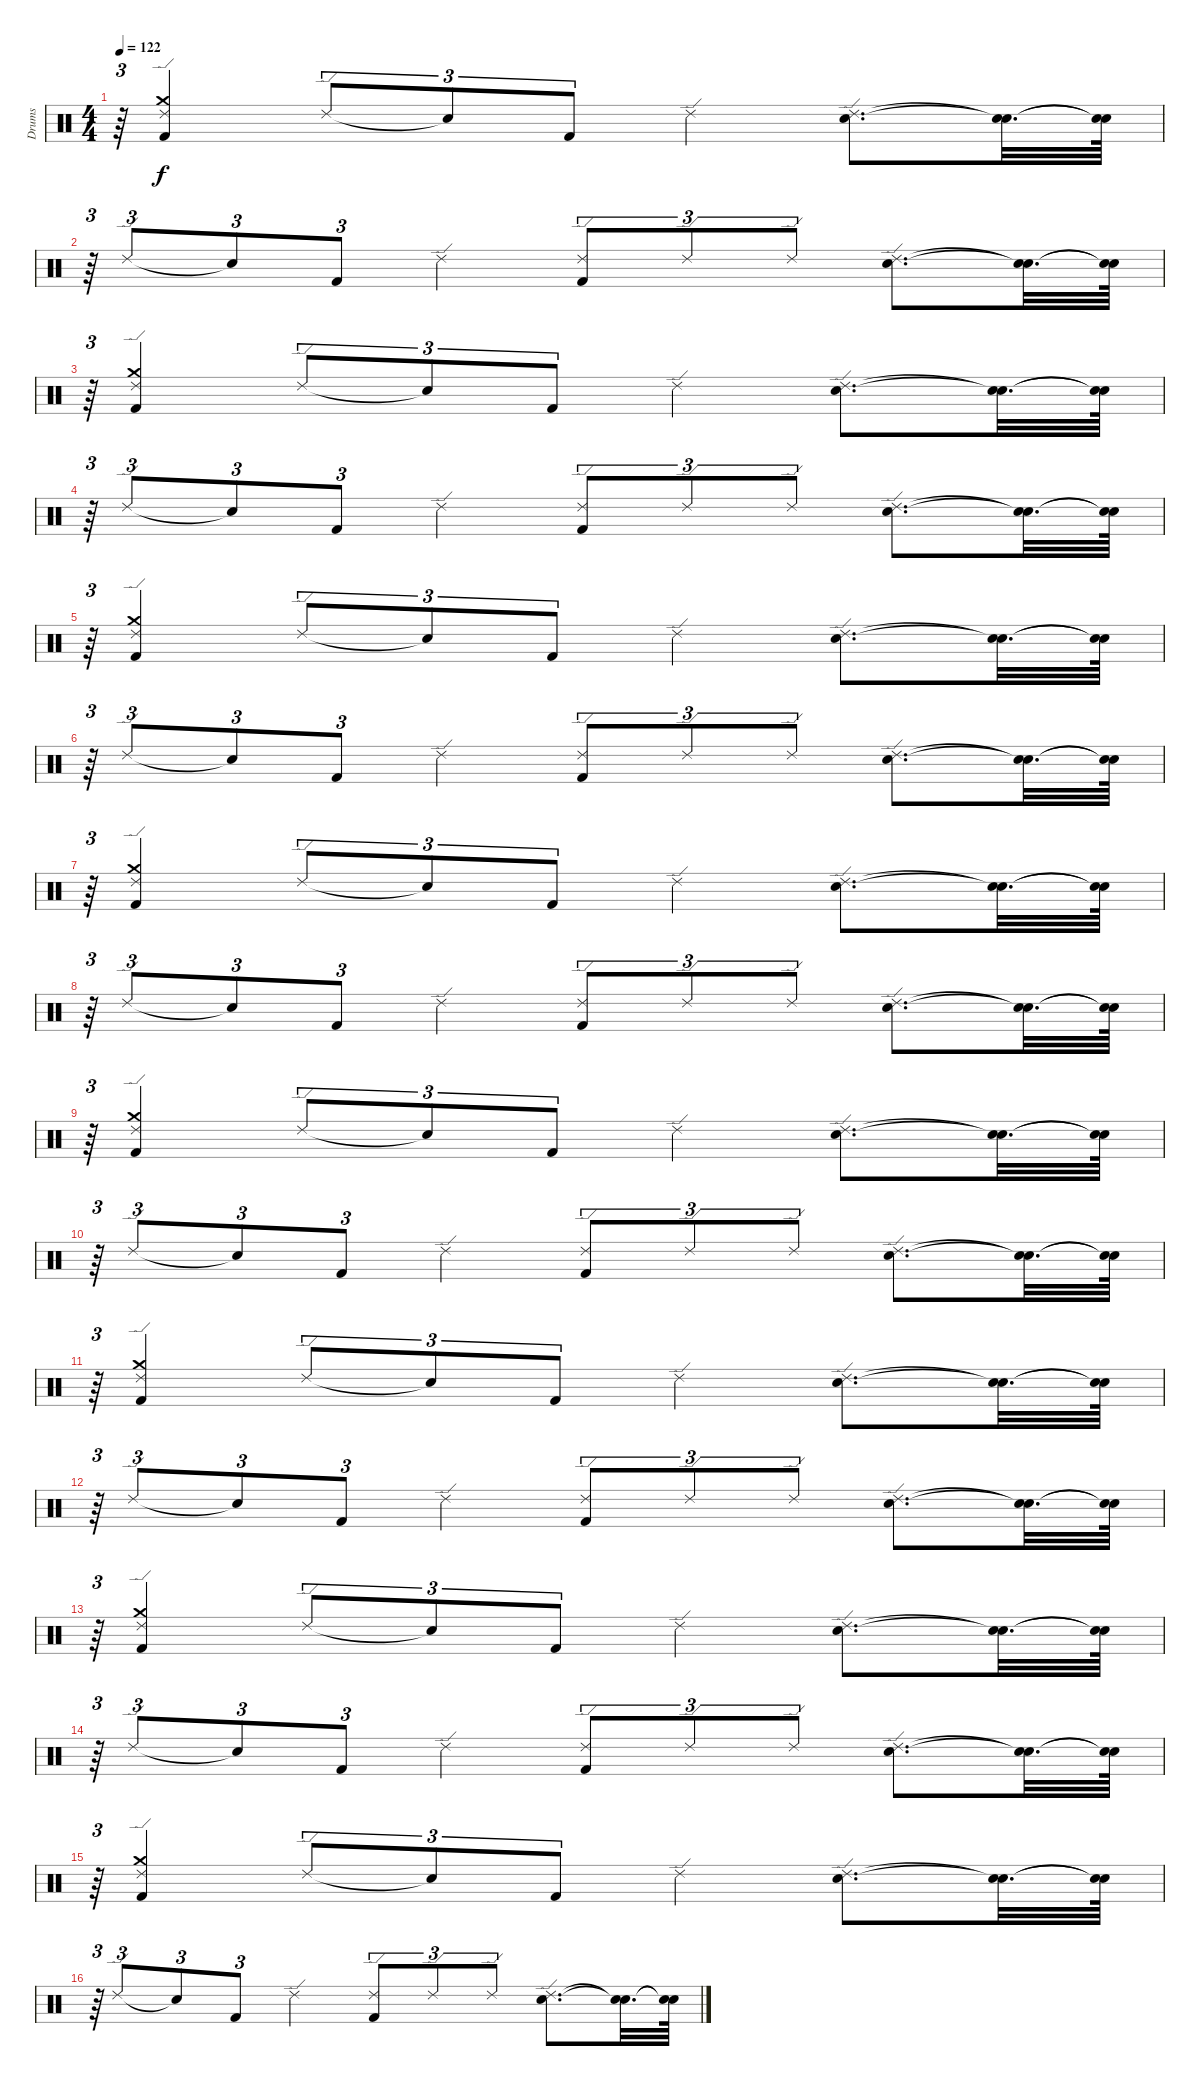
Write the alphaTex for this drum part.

\track ("Drums" "Drums") {instrument percussion}
\staff {score}
\articulation defaults
\ts (4 4)
\tempo 122
\clef neutral
\ks c
r.64{tu (3 2) dy f} ("Ride (edge) 2" "Crash medium (hit)" "Kick (hit) 2").4{volume 14} "Ride (edge) 2".8{tu (3 2) volume 13} "Snare (hit)"{t}.8{tu (3 2)} "Kick (hit) 2".8{tu (3 2) volume 13} "Ride (edge) 2".4{volume 13} ("Ride (edge) 2" "Snare (hit) 2").8{d volume 13} ("Snare (hit)"{t} "Snare (hit)"{t}).32{d} ("Snare (hit)"{t} "Snare (hit)"{t}).64 |
r.64{tu (3 2)} "Ride (edge) 2".8{tu (3 2) volume 13} "Snare (hit)"{t}.8{tu (3 2)} "Kick (hit) 2".8{tu (3 2) volume 13} "Ride (edge) 2".4{volume 12} ("Kick (hit) 2" "Ride (edge) 2").8{tu (3 2) volume 12} "Ride (edge) 2".8{tu (3 2)} "Ride (edge) 2".8{tu (3 2) volume 12} ("Snare (hit) 2" "Ride (edge) 2").8{d} ("Snare (hit)"{t} "Snare (hit)"{t}).32{d} ("Snare (hit)"{t} "Snare (hit)"{t}).64 |
r.64{tu (3 2)} ("Kick (hit) 2" "Crash medium (hit)" "Ride (edge) 2").4{volume 12} "Ride (edge) 2".8{tu (3 2) volume 12} "Snare (hit)"{t}.8{tu (3 2)} "Kick (hit) 2".8{tu (3 2) volume 12} "Ride (edge) 2".4 ("Snare (hit) 2" "Ride (edge) 2").8{d volume 11} ("Snare (hit)"{t} "Snare (hit)"{t}).32{d} ("Snare (hit)"{t} "Snare (hit)"{t}).64 |
r.64{tu (3 2)} "Ride (edge) 2".8{tu (3 2) volume 11} "Snare (hit)"{t}.8{tu (3 2)} "Kick (hit) 2".8{tu (3 2) volume 11} "Ride (edge) 2".4 ("Kick (hit) 2" "Ride (edge) 2").8{tu (3 2) volume 11} "Ride (edge) 2".8{tu (3 2) volume 10} "Ride (edge) 2".8{tu (3 2)} ("Snare (hit) 2" "Ride (edge) 2").8{d volume 10} ("Snare (hit)"{t} "Snare (hit)"{t}).32{d} ("Snare (hit)"{t} "Snare (hit)"{t}).64 |
r.64{tu (3 2)} ("Kick (hit) 2" "Crash medium (hit)" "Ride (edge) 2").4{volume 10} "Ride (edge) 2".8{tu (3 2) volume 10} "Snare (hit)"{t}.8{tu (3 2)} "Kick (hit) 2".8{tu (3 2) volume 10} "Ride (edge) 2".4{volume 10} ("Snare (hit) 2" "Ride (edge) 2").8{d volume 10} ("Snare (hit)"{t} "Snare (hit)"{t}).32{d} ("Snare (hit)"{t} "Snare (hit)"{t}).64 |
r.64{tu (3 2)} "Ride (edge) 2".8{tu (3 2) volume 9} "Snare (hit)"{t}.8{tu (3 2)} "Kick (hit) 2".8{tu (3 2) volume 9} "Ride (edge) 2".4{volume 9} ("Kick (hit) 2" "Ride (edge) 2").8{tu (3 2) volume 9} "Ride (edge) 2".8{tu (3 2)} "Ride (edge) 2".8{tu (3 2) volume 9} ("Snare (hit) 2" "Ride (edge) 2").8{d} ("Snare (hit)"{t} "Snare (hit)"{t}).32{d} ("Snare (hit)"{t} "Snare (hit)"{t}).64 |
r.64{tu (3 2)} ("Kick (hit) 2" "Crash medium (hit)" "Ride (edge) 2").4{volume 8} "Ride (edge) 2".8{tu (3 2) volume 8} "Snare (hit)"{t}.8{tu (3 2)} "Kick (hit) 2".8{tu (3 2) volume 8} "Ride (edge) 2".4 ("Snare (hit) 2" "Ride (edge) 2").8{d volume 8} ("Snare (hit)"{t} "Snare (hit)"{t}).32{d} ("Snare (hit)"{t} "Snare (hit)"{t}).64 |
r.64{tu (3 2)} "Ride (edge) 2".8{tu (3 2) volume 8} "Snare (hit)"{t}.8{tu (3 2)} "Kick (hit) 2".8{tu (3 2) volume 8} "Ride (edge) 2".4 ("Kick (hit) 2" "Ride (edge) 2").8{tu (3 2) volume 7} "Ride (edge) 2".8{tu (3 2) volume 7} "Ride (edge) 2".8{tu (3 2)} ("Snare (hit) 2" "Ride (edge) 2").8{d volume 7} ("Snare (hit)"{t} "Snare (hit)"{t}).32{d} ("Snare (hit)"{t} "Snare (hit)"{t}).64 |
r.64{tu (3 2)} ("Kick (hit) 2" "Crash medium (hit)" "Ride (edge) 2").4{volume 7} "Ride (edge) 2".8{tu (3 2) volume 7} "Snare (hit)"{t}.8{tu (3 2)} "Kick (hit) 2".8{tu (3 2) volume 6} "Ride (edge) 2".4{volume 6} ("Snare (hit) 2" "Ride (edge) 2").8{d volume 6} ("Snare (hit)"{t} "Snare (hit)"{t}).32{d} ("Snare (hit)"{t} "Snare (hit)"{t}).64 |
r.64{tu (3 2)} "Ride (edge) 2".8{tu (3 2) volume 6} "Snare (hit)"{t}.8{tu (3 2)} "Kick (hit) 2".8{tu (3 2) volume 6} "Ride (edge) 2".4{volume 6} ("Kick (hit) 2" "Ride (edge) 2").8{tu (3 2) volume 6} "Ride (edge) 2".8{tu (3 2)} "Ride (edge) 2".8{tu (3 2) volume 5} ("Ride (edge) 2" "Snare (hit) 2").8{d} ("Snare (hit)"{t} "Snare (hit)"{t}).32{d} ("Snare (hit)"{t} "Snare (hit)"{t}).64 |
r.64{tu (3 2)} ("Kick (hit) 2" "Crash medium (hit)" "Ride (edge) 2").4{volume 5} "Ride (edge) 2".8{tu (3 2) volume 5} "Snare (hit)"{t}.8{tu (3 2)} "Kick (hit) 2".8{tu (3 2) volume 5} "Ride (edge) 2".4 ("Snare (hit) 2" "Ride (edge) 2").8{d volume 4} ("Snare (hit)"{t} "Snare (hit)"{t}).32{d} ("Snare (hit)"{t} "Snare (hit)"{t}).64 |
r.64{tu (3 2)} "Ride (edge) 2".8{tu (3 2) volume 4} "Snare (hit)"{t}.8{tu (3 2)} "Kick (hit) 2".8{tu (3 2) volume 4} "Ride (edge) 2".4 ("Kick (hit) 2" "Ride (edge) 2").8{tu (3 2) volume 4} "Ride (edge) 2".8{tu (3 2) volume 4} "Ride (edge) 2".8{tu (3 2)} ("Snare (hit) 2" "Ride (edge) 2").8{d volume 4} ("Snare (hit)"{t} "Snare (hit)"{t}).32{d} ("Snare (hit)"{t} "Snare (hit)"{t}).64 |
r.64{tu (3 2)} ("Kick (hit) 2" "Crash medium (hit)" "Ride (edge) 2").4{volume 3} "Ride (edge) 2".8{tu (3 2) volume 3} "Snare (hit)"{t}.8{tu (3 2)} "Kick (hit) 2".8{tu (3 2) volume 3} "Ride (edge) 2".4{volume 3} ("Snare (hit) 2" "Ride (edge) 2").8{d volume 3} ("Snare (hit)"{t} "Snare (hit)"{t}).32{d} ("Snare (hit)"{t} "Snare (hit)"{t}).64 |
r.64{tu (3 2)} "Ride (edge) 2".8{tu (3 2) volume 3} "Snare (hit)"{t}.8{tu (3 2)} "Kick (hit) 2".8{tu (3 2) volume 2} "Ride (edge) 2".4{volume 2} ("Kick (hit) 2" "Ride (edge) 2").8{tu (3 2) volume 2} "Ride (edge) 2".8{tu (3 2)} "Ride (edge) 2".8{tu (3 2) volume 2} ("Snare (hit) 2" "Ride (edge) 2").8{d} ("Snare (hit)"{t} "Snare (hit)"{t}).32{d} ("Snare (hit)"{t} "Snare (hit)"{t}).64 |
r.64{tu (3 2)} ("Kick (hit) 2" "Crash medium (hit)" "Ride (edge) 2").4{volume 2} "Ride (edge) 2".8{tu (3 2) volume 2} "Snare (hit)"{t}.8{tu (3 2)} "Kick (hit) 2".8{tu (3 2) volume 1} "Ride (edge) 2".4 ("Snare (hit) 2" "Ride (edge) 2").8{d volume 1} ("Snare (hit)"{t} "Snare (hit)"{t}).32{d} ("Snare (hit)"{t} "Snare (hit)"{t}).64 |
r.64{tu (3 2)} "Ride (edge) 2".8{tu (3 2) volume 1} "Snare (hit)"{t}.8{tu (3 2)} "Kick (hit) 2".8{tu (3 2) volume 1} "Ride (edge) 2".4 ("Kick (hit) 2" "Ride (edge) 2").8{tu (3 2) volume 0} "Ride (edge) 2".8{tu (3 2) volume 0} "Ride (edge) 2".8{tu (3 2)} ("Snare (hit) 2" "Ride (edge) 2").8{d volume 0} ("Snare (hit)"{t} "Snare (hit)"{t}).32{d} ("Snare (hit)"{t} "Snare (hit)"{t}).64
